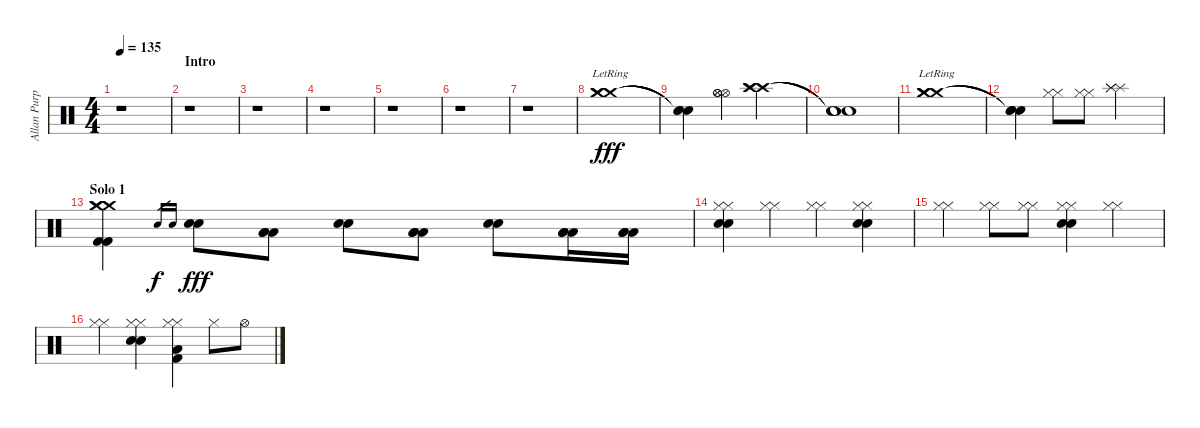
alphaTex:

\track ("Allan Purple" "Allan Purp") {instrument percussion}
\staff {score}
\articulation defaults
\ts (4 4)
\tempo 135
\clef neutral
\ks c
r.1{dy fff} |
\section ("" "Intro")
r.1 |
r.1 |
r.1 |
r.1 |
r.1 |
r.1 |
("Crash medium (hit)"{lr} "Crash medium (hit)"{lr} "Crash medium (hit)"{lr}).1 |
("Snare (hit)"{t} "Snare (hit)"{t} "Snare (hit)"{t}).4 ("Hi-Hat (open)" "Hi-Hat (open)" "Hi-Hat (open)").4 ("Crash high (hit)" "Crash high (hit)" "Crash high (hit)").2 |
("Snare (hit)"{t} "Snare (hit)"{t} "Snare (hit)"{t}).1 |
("Crash medium (hit)"{lr} "Crash medium (hit)"{lr} "Crash medium (hit)"{lr}).1 |
("Snare (hit)"{t} "Snare (hit)"{t} "Snare (hit)"{t}).4 ("Hi-Hat (closed)" "Hi-Hat (closed)").8 ("Hi-Hat (closed)" "Hi-Hat (closed)").8 ("Splash (hit)" "Splash (hit)" "Splash (hit)").2 |
\section ("" "Solo 1")
("Crash medium (hit)" "Crash medium (hit)" "Crash medium (hit)" "Kick (hit) 2" "Kick (hit) 2").4 "Electric Snare (hit)".16{gr dy f} "Electric Snare (hit)".16{gr} ("Electric Snare (hit)" "Electric Snare (hit)").8{dy fff} ("Low Tom (hit)" "Low Tom (hit)" "Low Tom (hit)").8 ("Electric Snare (hit)" "Electric Snare (hit)").8 ("Low Tom (hit)" "Low Tom (hit)" "Low Tom (hit)").8 ("Electric Snare (hit)" "Electric Snare (hit)").8 ("Low Tom (hit)" "Low Tom (hit)" "Low Tom (hit)").16 ("Low Tom (hit)" "Low Tom (hit)" "Low Tom (hit)").16 |
("Hi-Hat (closed)" "Hi-Hat (closed)" "Electric Snare (hit)" "Electric Snare (hit)").4 ("Hi-Hat (closed)" "Hi-Hat (closed)").4 ("Hi-Hat (closed)" "Hi-Hat (closed)").4 ("Hi-Hat (closed)" "Hi-Hat (closed)" "Electric Snare (hit)" "Electric Snare (hit)").4 |
("Hi-Hat (closed)" "Hi-Hat (closed)").4 ("Hi-Hat (closed)" "Hi-Hat (closed)").8 ("Hi-Hat (closed)" "Hi-Hat (closed)").8 ("Hi-Hat (closed)" "Hi-Hat (closed)" "Electric Snare (hit)" "Electric Snare (hit)").4 ("Hi-Hat (closed)" "Hi-Hat (closed)").4 |
("Hi-Hat (closed)" "Hi-Hat (closed)").4 ("Hi-Hat (closed)" "Hi-Hat (closed)" "Electric Snare (hit)" "Electric Snare (hit)").4 ("Hi-Hat (closed)" "Hi-Hat (closed)" "Kick (hit) 2" "Low Tom (hit)").4 "Hi-Hat (closed)".8 "Hi-Hat (open)".8
